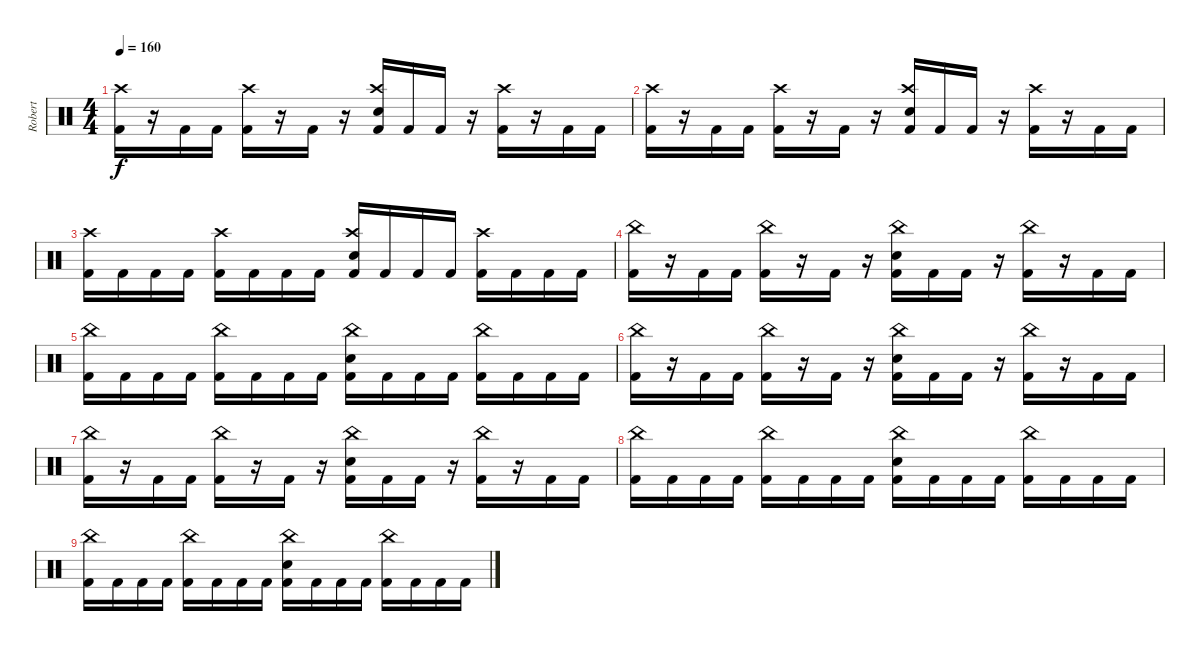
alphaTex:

\track ("Robert" "Robert") {instrument percussion}
\staff {score}
\articulation defaults
\ts (4 4)
\tempo 160
\clef neutral
\ks c
("Kick (hit) 2" "Crash high (hit)").16{dy f} r.16 "Kick (hit) 2".16 "Kick (hit) 2".16 ("Kick (hit) 2" "Crash high (hit)").16 r.16 "Kick (hit) 2".16 r.16 ("Crash high (hit)" "Electric Snare (hit)" "Kick (hit) 2").16 "Kick (hit) 2".16 "Kick (hit) 2".16 r.16 ("Kick (hit) 2" "Crash high (hit)").16 r.16 "Kick (hit) 2".16 "Kick (hit) 2".16 |
("Kick (hit) 2" "Crash high (hit)").16 r.16 "Kick (hit) 2".16 "Kick (hit) 2".16 ("Kick (hit) 2" "Crash high (hit)").16 r.16 "Kick (hit) 2".16 r.16 ("Crash high (hit)" "Electric Snare (hit)" "Kick (hit) 2").16 "Kick (hit) 2".16 "Kick (hit) 2".16 r.16 ("Kick (hit) 2" "Crash high (hit)").16 r.16 "Kick (hit) 2".16 "Kick (hit) 2".16 |
("Kick (hit) 2" "Crash high (hit)").16 "Kick (hit) 2".16 "Kick (hit) 2".16 "Kick (hit) 2".16 ("Kick (hit) 2" "Crash high (hit)").16 "Kick (hit) 2".16 "Kick (hit) 2".16 "Kick (hit) 2".16 ("Crash high (hit)" "Electric Snare (hit)" "Kick (hit) 2").16 "Kick (hit) 2".16 "Kick (hit) 2".16 "Kick (hit) 2".16 ("Kick (hit) 2" "Crash high (hit)").16 "Kick (hit) 2".16 "Kick (hit) 2".16 "Kick (hit) 2".16 |
("Kick (hit) 2" "China (hit)").16 r.16 "Kick (hit) 2".16 "Kick (hit) 2".16 ("Kick (hit) 2" "China (hit)").16 r.16 "Kick (hit) 2".16 r.16 ("China (hit)" "Electric Snare (hit)" "Kick (hit) 2").16 "Kick (hit) 2".16 "Kick (hit) 2".16 r.16 ("Kick (hit) 2" "China (hit)").16 r.16 "Kick (hit) 2".16 "Kick (hit) 2".16 |
("Kick (hit) 2" "China (hit)").16 "Kick (hit) 2".16 "Kick (hit) 2".16 "Kick (hit) 2".16 ("Kick (hit) 2" "China (hit)").16 "Kick (hit) 2".16 "Kick (hit) 2".16 "Kick (hit) 2".16 ("China (hit)" "Electric Snare (hit)" "Kick (hit) 2").16 "Kick (hit) 2".16 "Kick (hit) 2".16 "Kick (hit) 2".16 ("Kick (hit) 2" "China (hit)").16 "Kick (hit) 2".16 "Kick (hit) 2".16 "Kick (hit) 2".16 |
("Kick (hit) 2" "China (hit)").16 r.16 "Kick (hit) 2".16 "Kick (hit) 2".16 ("Kick (hit) 2" "China (hit)").16 r.16 "Kick (hit) 2".16 r.16 ("China (hit)" "Electric Snare (hit)" "Kick (hit) 2").16 "Kick (hit) 2".16 "Kick (hit) 2".16 r.16 ("Kick (hit) 2" "China (hit)").16 r.16 "Kick (hit) 2".16 "Kick (hit) 2".16 |
("Kick (hit) 2" "China (hit)").16 r.16 "Kick (hit) 2".16 "Kick (hit) 2".16 ("Kick (hit) 2" "China (hit)").16 r.16 "Kick (hit) 2".16 r.16 ("China (hit)" "Electric Snare (hit)" "Kick (hit) 2").16 "Kick (hit) 2".16 "Kick (hit) 2".16 r.16 ("Kick (hit) 2" "China (hit)").16 r.16 "Kick (hit) 2".16 "Kick (hit) 2".16 |
("Kick (hit) 2" "China (hit)").16 "Kick (hit) 2".16 "Kick (hit) 2".16 "Kick (hit) 2".16 ("Kick (hit) 2" "China (hit)").16 "Kick (hit) 2".16 "Kick (hit) 2".16 "Kick (hit) 2".16 ("China (hit)" "Electric Snare (hit)" "Kick (hit) 2").16 "Kick (hit) 2".16 "Kick (hit) 2".16 "Kick (hit) 2".16 ("Kick (hit) 2" "China (hit)").16 "Kick (hit) 2".16 "Kick (hit) 2".16 "Kick (hit) 2".16 |
("Kick (hit) 2" "China (hit)").16 "Kick (hit) 2".16 "Kick (hit) 2".16 "Kick (hit) 2".16 ("Kick (hit) 2" "China (hit)").16 "Kick (hit) 2".16 "Kick (hit) 2".16 "Kick (hit) 2".16 ("China (hit)" "Electric Snare (hit)" "Kick (hit) 2").16 "Kick (hit) 2".16 "Kick (hit) 2".16 "Kick (hit) 2".16 ("Kick (hit) 2" "China (hit)").16 "Kick (hit) 2".16 "Kick (hit) 2".16 "Kick (hit) 2".16
